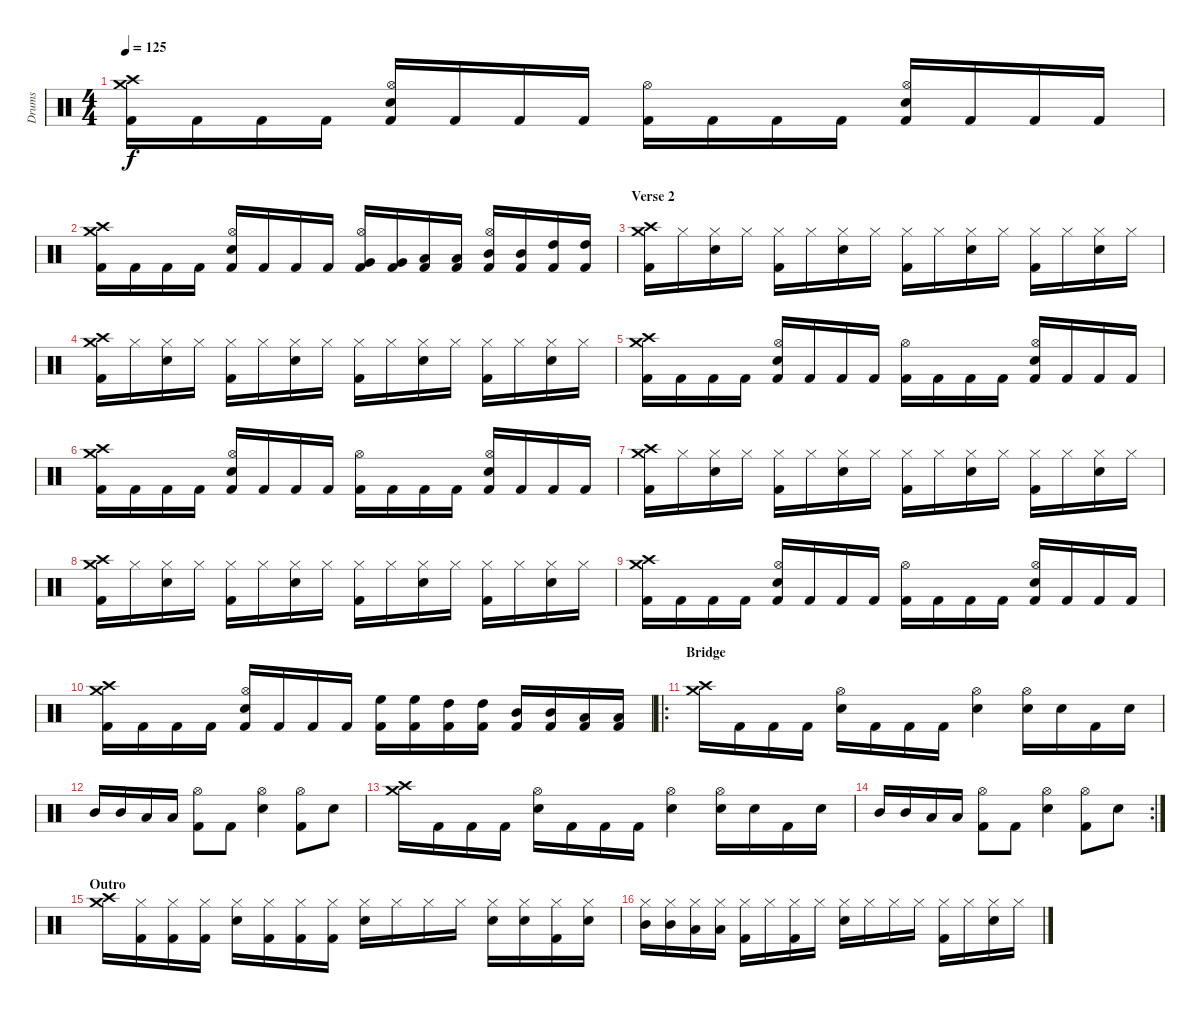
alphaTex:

\track ("Drums" "Drums") {instrument percussion}
\staff {score}
\articulation defaults
\ts (4 4)
\tempo 125
\clef neutral
\ks c
("Crash medium (hit)" "Crash high (hit)" "Kick (hit) 2").16{dy f} "Kick (hit) 2".16 "Kick (hit) 2".16 "Kick (hit) 2".16 ("Hi-Hat (open)" "Snare (hit) 2" "Kick (hit) 2").16 "Kick (hit) 2".16 "Kick (hit) 2".16 "Kick (hit) 2".16 ("Hi-Hat (open)" "Kick (hit) 2").16 "Kick (hit) 2".16 "Kick (hit) 2".16 "Kick (hit) 2".16 ("Hi-Hat (open)" "Snare (hit) 2" "Kick (hit) 2").16 "Kick (hit) 2".16 "Kick (hit) 2".16 "Kick (hit) 2".16 |
("Crash medium (hit)" "Crash high (hit)" "Kick (hit) 2").16 "Kick (hit) 2".16 "Kick (hit) 2".16 "Kick (hit) 2".16 ("Hi-Hat (open)" "Snare (hit) 2" "Kick (hit) 2").16 "Kick (hit) 2".16 "Kick (hit) 2".16 "Kick (hit) 2".16 ("Hi-Hat (open)" "Very Low Tom (hit)" "Kick (hit) 2").16 ("Very Low Tom (hit)" "Kick (hit) 2").16 ("Low Tom (hit)" "Kick (hit) 2").16 ("Low Tom (hit)" "Kick (hit) 2").16 ("Hi-Hat (open)" "Mid Tom (hit)" "Kick (hit) 2").16 ("Mid Tom (hit)" "Kick (hit) 2").16 ("High Tom (hit)" "Kick (hit) 2").16 ("High Tom (hit)" "Kick (hit) 2").16 |
\section ("" "Verse 2")
("Crash medium (hit)" "Crash high (hit)" "Kick (hit) 2").16 "Hi-Hat (closed)".16 ("Hi-Hat (closed)" "Snare (hit) 2").16 "Hi-Hat (closed)".16 ("Hi-Hat (closed)" "Kick (hit) 2").16 "Hi-Hat (closed)".16 ("Hi-Hat (closed)" "Snare (hit) 2").16 "Hi-Hat (closed)".16 ("Hi-Hat (closed)" "Kick (hit) 2").16 "Hi-Hat (closed)".16 ("Hi-Hat (closed)" "Snare (hit) 2").16 "Hi-Hat (closed)".16 ("Hi-Hat (closed)" "Kick (hit) 2").16 "Hi-Hat (closed)".16 ("Hi-Hat (closed)" "Snare (hit) 2").16 "Hi-Hat (closed)".16 |
("Crash medium (hit)" "Crash high (hit)" "Kick (hit) 2").16 "Hi-Hat (closed)".16 ("Hi-Hat (closed)" "Snare (hit) 2").16 "Hi-Hat (closed)".16 ("Hi-Hat (closed)" "Kick (hit) 2").16 "Hi-Hat (closed)".16 ("Hi-Hat (closed)" "Snare (hit) 2").16 "Hi-Hat (closed)".16 ("Hi-Hat (closed)" "Kick (hit) 2").16 "Hi-Hat (closed)".16 ("Hi-Hat (closed)" "Snare (hit) 2").16 "Hi-Hat (closed)".16 ("Hi-Hat (closed)" "Kick (hit) 2").16 "Hi-Hat (closed)".16 ("Hi-Hat (closed)" "Snare (hit) 2").16 "Hi-Hat (closed)".16 |
("Crash medium (hit)" "Crash high (hit)" "Kick (hit) 2").16 "Kick (hit) 2".16 "Kick (hit) 2".16 "Kick (hit) 2".16 ("Hi-Hat (open)" "Snare (hit) 2" "Kick (hit) 2").16 "Kick (hit) 2".16 "Kick (hit) 2".16 "Kick (hit) 2".16 ("Hi-Hat (open)" "Kick (hit) 2").16 "Kick (hit) 2".16 "Kick (hit) 2".16 "Kick (hit) 2".16 ("Hi-Hat (open)" "Snare (hit) 2" "Kick (hit) 2").16 "Kick (hit) 2".16 "Kick (hit) 2".16 "Kick (hit) 2".16 |
("Crash medium (hit)" "Crash high (hit)" "Kick (hit) 2").16 "Kick (hit) 2".16 "Kick (hit) 2".16 "Kick (hit) 2".16 ("Hi-Hat (open)" "Snare (hit) 2" "Kick (hit) 2").16 "Kick (hit) 2".16 "Kick (hit) 2".16 "Kick (hit) 2".16 ("Hi-Hat (open)" "Kick (hit) 2").16 "Kick (hit) 2".16 "Kick (hit) 2".16 "Kick (hit) 2".16 ("Hi-Hat (open)" "Snare (hit) 2" "Kick (hit) 2").16 "Kick (hit) 2".16 "Kick (hit) 2".16 "Kick (hit) 2".16 |
("Crash medium (hit)" "Crash high (hit)" "Kick (hit) 2").16 "Hi-Hat (closed)".16 ("Hi-Hat (closed)" "Snare (hit) 2").16 "Hi-Hat (closed)".16 ("Hi-Hat (closed)" "Kick (hit) 2").16 "Hi-Hat (closed)".16 ("Hi-Hat (closed)" "Snare (hit) 2").16 "Hi-Hat (closed)".16 ("Hi-Hat (closed)" "Kick (hit) 2").16 "Hi-Hat (closed)".16 ("Hi-Hat (closed)" "Snare (hit) 2").16 "Hi-Hat (closed)".16 ("Hi-Hat (closed)" "Kick (hit) 2").16 "Hi-Hat (closed)".16 ("Hi-Hat (closed)" "Snare (hit) 2").16 "Hi-Hat (closed)".16 |
("Crash medium (hit)" "Crash high (hit)" "Kick (hit) 2").16 "Hi-Hat (closed)".16 ("Hi-Hat (closed)" "Snare (hit) 2").16 "Hi-Hat (closed)".16 ("Hi-Hat (closed)" "Kick (hit) 2").16 "Hi-Hat (closed)".16 ("Hi-Hat (closed)" "Snare (hit) 2").16 "Hi-Hat (closed)".16 ("Hi-Hat (closed)" "Kick (hit) 2").16 "Hi-Hat (closed)".16 ("Hi-Hat (closed)" "Snare (hit) 2").16 "Hi-Hat (closed)".16 ("Hi-Hat (closed)" "Kick (hit) 2").16 "Hi-Hat (closed)".16 ("Hi-Hat (closed)" "Snare (hit) 2").16 "Hi-Hat (closed)".16 |
("Crash medium (hit)" "Crash high (hit)" "Kick (hit) 2").16 "Kick (hit) 2".16 "Kick (hit) 2".16 "Kick (hit) 2".16 ("Hi-Hat (open)" "Snare (hit) 2" "Kick (hit) 2").16 "Kick (hit) 2".16 "Kick (hit) 2".16 "Kick (hit) 2".16 ("Hi-Hat (open)" "Kick (hit) 2").16 "Kick (hit) 2".16 "Kick (hit) 2".16 "Kick (hit) 2".16 ("Hi-Hat (open)" "Snare (hit) 2" "Kick (hit) 2").16 "Kick (hit) 2".16 "Kick (hit) 2".16 "Kick (hit) 2".16 |
("Crash medium (hit)" "Crash high (hit)" "Kick (hit) 2").16 "Kick (hit) 2".16 "Kick (hit) 2".16 "Kick (hit) 2".16 ("Hi-Hat (open)" "Snare (hit) 2" "Kick (hit) 2").16 "Kick (hit) 2".16 "Kick (hit) 2".16 "Kick (hit) 2".16 ("High Floor Tom (hit)" "Kick (hit) 2").16 ("High Floor Tom (hit)" "Kick (hit) 2").16 ("High Tom (hit)" "Kick (hit) 2").16 ("High Tom (hit)" "Kick (hit) 2").16 ("Mid Tom (hit)" "Kick (hit) 2").16 ("Mid Tom (hit)" "Kick (hit) 2").16 ("Low Tom (hit)" "Kick (hit) 2").16 ("Low Tom (hit)" "Kick (hit) 2").16 |
\ro
\section ("" "Bridge")
("Crash medium (hit)" "Crash high (hit)").16 "Kick (hit) 2".16 "Kick (hit) 2".16 "Kick (hit) 2".16 ("Hi-Hat (open)" "Snare (hit) 2").16 "Kick (hit) 2".16 "Kick (hit) 2".16 "Kick (hit) 2".16 ("Hi-Hat (open)" "Snare (hit) 2").4 ("Hi-Hat (open)" "Snare (hit) 2").16 "Snare (hit) 2".16 "Kick (hit) 2".16 "Snare (hit) 2".16 |
"Mid Tom (hit)".16 "Mid Tom (hit)".16 "Low Tom (hit)".16 "Low Tom (hit)".16 ("Hi-Hat (open)" "Kick (hit) 2").8 "Kick (hit) 2".8 ("Hi-Hat (open)" "Snare (hit) 2").4 ("Hi-Hat (open)" "Kick (hit) 2").8 "Snare (hit) 2".8 |
("Crash medium (hit)" "Crash high (hit)").16 "Kick (hit) 2".16 "Kick (hit) 2".16 "Kick (hit) 2".16 ("Hi-Hat (open)" "Snare (hit) 2").16 "Kick (hit) 2".16 "Kick (hit) 2".16 "Kick (hit) 2".16 ("Hi-Hat (open)" "Snare (hit) 2").4 ("Hi-Hat (open)" "Snare (hit) 2").16 "Snare (hit) 2".16 "Kick (hit) 2".16 "Snare (hit) 2".16 |
\rc 2 "Mid Tom (hit)".16 "Mid Tom (hit)".16 "Low Tom (hit)".16 "Low Tom (hit)".16
("Hi-Hat (open)" "Kick (hit) 2").8 "Kick (hit) 2".8 ("Hi-Hat (open)" "Snare (hit) 2").4 ("Hi-Hat (open)" "Kick (hit) 2").8 "Snare (hit) 2".8 |
\section ("" "Outro")
("Crash medium (hit)" "Crash high (hit)").16 ("Hi-Hat (closed)" "Kick (hit) 2").16 ("Hi-Hat (closed)" "Kick (hit) 2").16 ("Hi-Hat (closed)" "Kick (hit) 2").16 ("Hi-Hat (closed)" "Snare (hit) 2").16 ("Hi-Hat (closed)" "Kick (hit) 2").16 ("Hi-Hat (closed)" "Kick (hit) 2").16 ("Hi-Hat (closed)" "Kick (hit) 2").16 ("Hi-Hat (closed)" "Snare (hit) 2").16 "Hi-Hat (closed)".16 "Hi-Hat (closed)".16 "Hi-Hat (closed)".16 ("Hi-Hat (closed)" "Snare (hit) 2").16 ("Hi-Hat (closed)" "Snare (hit) 2").16 ("Hi-Hat (closed)" "Kick (hit) 2").16 ("Hi-Hat (closed)" "Snare (hit) 2").16 |
("Hi-Hat (closed)" "Mid Tom (hit)").16 ("Hi-Hat (closed)" "Mid Tom (hit)").16 ("Hi-Hat (closed)" "Low Tom (hit)").16 ("Hi-Hat (closed)" "Low Tom (hit)").16 ("Hi-Hat (closed)" "Kick (hit) 2").16 "Hi-Hat (closed)".16 ("Hi-Hat (closed)" "Kick (hit) 2").16 "Hi-Hat (closed)".16 ("Hi-Hat (closed)" "Snare (hit) 2").16 "Hi-Hat (closed)".16 "Hi-Hat (closed)".16 "Hi-Hat (closed)".16 ("Hi-Hat (closed)" "Kick (hit) 2").16 "Hi-Hat (closed)".16 ("Hi-Hat (closed)" "Snare (hit) 2").16 "Hi-Hat (closed)".16
